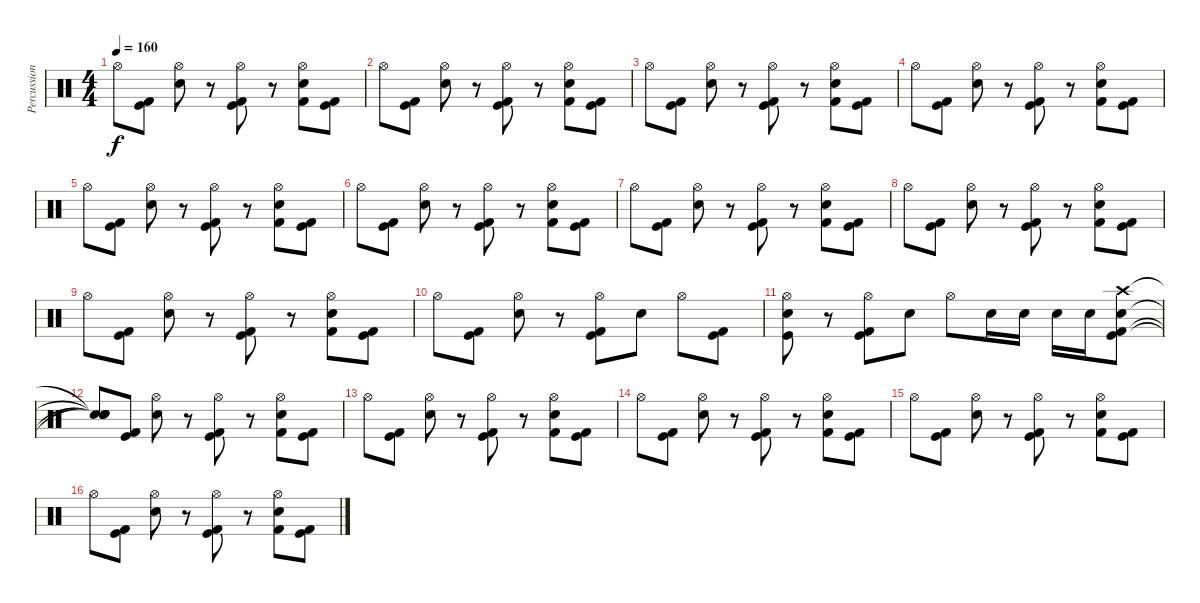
\track ("Percussions" "Percussion") {instrument percussion}
\staff {score}
\articulation defaults
\ts (4 4)
\tempo 160
\clef neutral
\ks c "Hi-Hat (open)".8{dy f}
("Kick (hit) 2" "Kick (hit)").8 ("Snare (hit) 2" "Hi-Hat (open)").8 r.8 ("Kick (hit) 2" "Kick (hit)" "Hi-Hat (open)").8 r.8 ("Kick (hit) 2" "Snare (hit) 2" "Hi-Hat (open)").8 ("Kick (hit) 2" "Kick (hit)").8 |
"Hi-Hat (open)".8 ("Kick (hit) 2" "Kick (hit)").8 ("Snare (hit) 2" "Hi-Hat (open)").8 r.8 ("Kick (hit) 2" "Kick (hit)" "Hi-Hat (open)").8 r.8 ("Kick (hit) 2" "Snare (hit) 2" "Hi-Hat (open)").8 ("Kick (hit) 2" "Kick (hit)").8 |
"Hi-Hat (open)".8 ("Kick (hit) 2" "Kick (hit)").8 ("Snare (hit) 2" "Hi-Hat (open)").8 r.8 ("Kick (hit) 2" "Kick (hit)" "Hi-Hat (open)").8 r.8 ("Kick (hit) 2" "Snare (hit) 2" "Hi-Hat (open)").8 ("Kick (hit) 2" "Kick (hit)").8 |
"Hi-Hat (open)".8 ("Kick (hit) 2" "Kick (hit)").8 ("Snare (hit) 2" "Hi-Hat (open)").8 r.8 ("Kick (hit) 2" "Kick (hit)" "Hi-Hat (open)").8 r.8 ("Kick (hit) 2" "Snare (hit) 2" "Hi-Hat (open)").8 ("Kick (hit) 2" "Kick (hit)").8 |
"Hi-Hat (open)".8 ("Kick (hit) 2" "Kick (hit)").8 ("Snare (hit) 2" "Hi-Hat (open)").8 r.8 ("Kick (hit) 2" "Kick (hit)" "Hi-Hat (open)").8 r.8 ("Kick (hit) 2" "Snare (hit) 2" "Hi-Hat (open)").8 ("Kick (hit) 2" "Kick (hit)").8 |
"Hi-Hat (open)".8 ("Kick (hit) 2" "Kick (hit)").8 ("Snare (hit) 2" "Hi-Hat (open)").8 r.8 ("Kick (hit) 2" "Kick (hit)" "Hi-Hat (open)").8 r.8 ("Kick (hit) 2" "Snare (hit) 2" "Hi-Hat (open)").8 ("Kick (hit) 2" "Kick (hit)").8 |
"Hi-Hat (open)".8 ("Kick (hit) 2" "Kick (hit)").8 ("Snare (hit) 2" "Hi-Hat (open)").8 r.8 ("Kick (hit) 2" "Kick (hit)" "Hi-Hat (open)").8 r.8 ("Kick (hit) 2" "Snare (hit) 2" "Hi-Hat (open)").8 ("Kick (hit) 2" "Kick (hit)").8 |
"Hi-Hat (open)".8 ("Kick (hit) 2" "Kick (hit)").8 ("Snare (hit) 2" "Hi-Hat (open)").8 r.8 ("Kick (hit) 2" "Kick (hit)" "Hi-Hat (open)").8 r.8 ("Kick (hit) 2" "Snare (hit) 2" "Hi-Hat (open)").8 ("Kick (hit) 2" "Kick (hit)").8 |
"Hi-Hat (open)".8 ("Kick (hit) 2" "Kick (hit)").8 ("Snare (hit) 2" "Hi-Hat (open)").8 r.8 ("Kick (hit) 2" "Kick (hit)" "Hi-Hat (open)").8 r.8 ("Kick (hit) 2" "Snare (hit) 2" "Hi-Hat (open)").8 ("Kick (hit) 2" "Kick (hit)").8 |
"Hi-Hat (open)".8 ("Kick (hit) 2" "Kick (hit)").8 ("Snare (hit) 2" "Hi-Hat (open)").8 r.8 ("Kick (hit) 2" "Kick (hit)" "Hi-Hat (open)").8 "Snare (hit) 2".8 "Hi-Hat (open)".8 ("Kick (hit) 2" "Kick (hit)").8 |
("Snare (hit) 2" "Kick (hit)" "Hi-Hat (open)").8 r.8 ("Kick (hit) 2" "Kick (hit)" "Hi-Hat (open)").8 "Snare (hit) 2".8 "Hi-Hat (open)".8 "Snare (hit) 2".16 "Snare (hit) 2".16 "Snare (hit) 2".16 "Snare (hit) 2".16 ("Kick (hit) 2" "Kick (hit)" "Snare (hit) 2" "Crash high (hit)").8 |
("Snare (hit)"{t} "Snare (hit)"{t} "Snare (hit)"{t} "Snare (hit)"{t}).8 ("Kick (hit) 2" "Kick (hit)").8 ("Snare (hit) 2" "Hi-Hat (open)").8 r.8 ("Kick (hit) 2" "Kick (hit)" "Hi-Hat (open)").8 r.8 ("Kick (hit) 2" "Snare (hit) 2" "Hi-Hat (open)").8 ("Kick (hit) 2" "Kick (hit)").8 |
"Hi-Hat (open)".8 ("Kick (hit) 2" "Kick (hit)").8 ("Snare (hit) 2" "Hi-Hat (open)").8 r.8 ("Kick (hit) 2" "Kick (hit)" "Hi-Hat (open)").8 r.8 ("Kick (hit) 2" "Snare (hit) 2" "Hi-Hat (open)").8 ("Kick (hit) 2" "Kick (hit)").8 |
"Hi-Hat (open)".8 ("Kick (hit) 2" "Kick (hit)").8 ("Snare (hit) 2" "Hi-Hat (open)").8 r.8 ("Kick (hit) 2" "Kick (hit)" "Hi-Hat (open)").8 r.8 ("Kick (hit) 2" "Snare (hit) 2" "Hi-Hat (open)").8 ("Kick (hit) 2" "Kick (hit)").8 |
"Hi-Hat (open)".8 ("Kick (hit) 2" "Kick (hit)").8 ("Snare (hit) 2" "Hi-Hat (open)").8 r.8 ("Kick (hit) 2" "Kick (hit)" "Hi-Hat (open)").8 r.8 ("Kick (hit) 2" "Snare (hit) 2" "Hi-Hat (open)").8 ("Kick (hit) 2" "Kick (hit)").8 |
"Hi-Hat (open)".8 ("Kick (hit) 2" "Kick (hit)").8 ("Snare (hit) 2" "Hi-Hat (open)").8 r.8 ("Kick (hit) 2" "Kick (hit)" "Hi-Hat (open)").8 r.8 ("Kick (hit) 2" "Snare (hit) 2" "Hi-Hat (open)").8 ("Kick (hit) 2" "Kick (hit)").8
